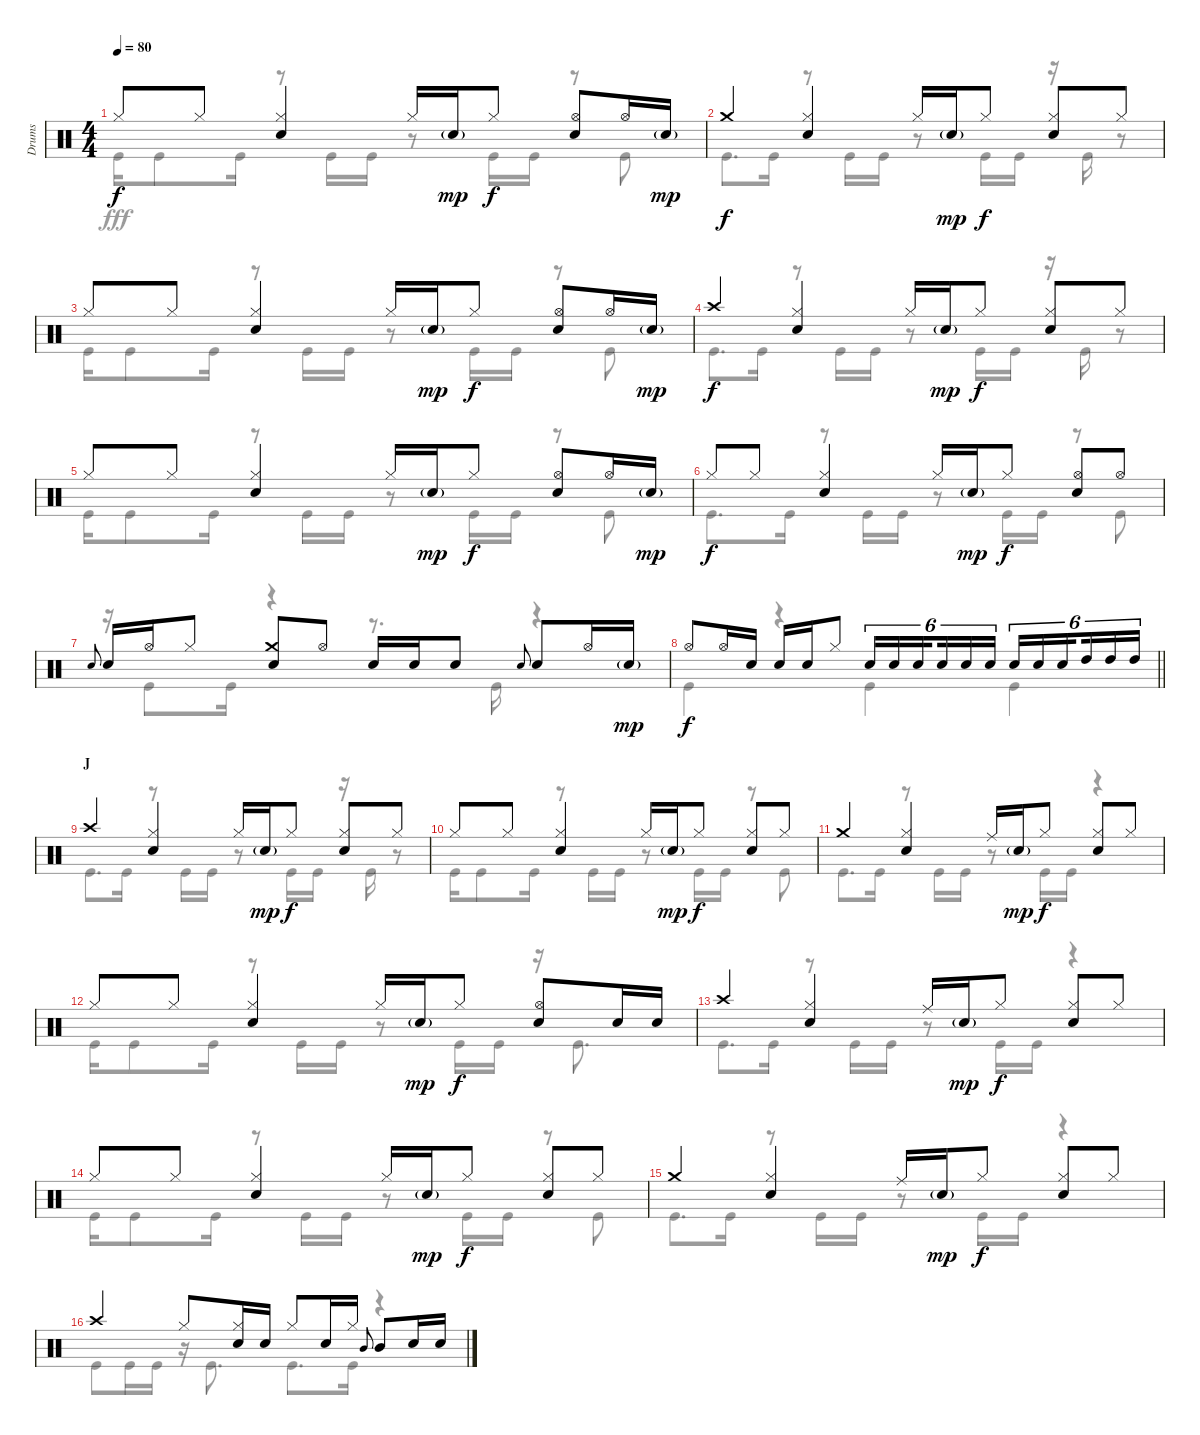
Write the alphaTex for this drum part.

\track ("Drums" "Drums") {instrument percussion}
\staff {score}
\articulation defaults
\voice
\ts (4 4)
\tempo 80
\clef neutral
\ks c "Hi-Hat (closed)".8{dy f} "Hi-Hat (closed)".8
("Hi-Hat (closed)" "Snare (hit) 2").4 "Hi-Hat (closed)".16 "Snare (hit) 2"{g}.16{dy mp} "Hi-Hat (closed)".8{dy f} ("Hi-Hat (open)" "Snare (hit) 2").8 "Hi-Hat (open)".16 "Snare (hit) 2"{g}.16{dy mp} |
"Crash medium (hit)".4{dy f} ("Hi-Hat (closed)" "Snare (hit) 2").4 "Hi-Hat (closed)".16 "Snare (hit) 2"{g}.16{dy mp} "Hi-Hat (closed)".8{dy f} ("Hi-Hat (closed)" "Snare (hit) 2").8 "Hi-Hat (closed)".8 |
"Hi-Hat (closed)".8 "Hi-Hat (closed)".8 ("Hi-Hat (closed)" "Snare (hit) 2").4 "Hi-Hat (closed)".16 "Snare (hit) 2"{g}.16{dy mp} "Hi-Hat (closed)".8{dy f} ("Hi-Hat (open)" "Snare (hit) 2").8 "Hi-Hat (open)".16 "Snare (hit) 2"{g}.16{dy mp} |
"Crash high (hit)".4{dy f} ("Hi-Hat (closed)" "Snare (hit) 2").4 "Hi-Hat (closed)".16 "Snare (hit) 2"{g}.16{dy mp} "Hi-Hat (closed)".8{dy f} ("Hi-Hat (closed)" "Snare (hit) 2").8 "Hi-Hat (closed)".8 |
"Hi-Hat (closed)".8 "Hi-Hat (closed)".8 ("Hi-Hat (closed)" "Snare (hit) 2").4 "Hi-Hat (closed)".16 "Snare (hit) 2"{g}.16{dy mp} "Hi-Hat (closed)".8{dy f} ("Hi-Hat (open)" "Snare (hit) 2").8 "Hi-Hat (open)".16 "Snare (hit) 2"{g}.16{dy mp} |
"Hi-Hat (closed)".8{dy f} "Hi-Hat (closed)".8 ("Hi-Hat (closed)" "Snare (hit) 2").4 "Hi-Hat (closed)".16 "Snare (hit) 2"{g}.16{dy mp} "Hi-Hat (closed)".8{dy f} ("Hi-Hat (open)" "Snare (hit) 2").8 "Hi-Hat (open)".8 |
"Snare (hit) 2".8{gr onbeat} "Snare (hit) 2".16 "Hi-Hat (open)".16 "Hi-Hat (closed)".8 ("Crash medium (hit)" "Snare (hit) 2").8 "Hi-Hat (open)".8 "Snare (hit) 2".16 "Snare (hit) 2".16 "Snare (hit) 2".8 "Snare (hit) 2".8{gr onbeat} "Snare (hit) 2".8 "Hi-Hat (open)".16 "Snare (hit) 2"{g}.16{dy mp} |
\barLineRight lightlight "Hi-Hat (open)".8{dy f} "Hi-Hat (open)".16 "Snare (hit) 2".16 "Snare (hit) 2".16 "Snare (hit) 2".16 "Hi-Hat (closed)".8 "Snare (hit) 2".16{tu (6 4)} "Snare (hit) 2".16{tu (6 4)} "Snare (hit) 2".16{tu (6 4) beam splitsecondary} "Snare (hit) 2".16{tu (6 4)} "Snare (hit) 2".16{tu (6 4)} "Snare (hit) 2".16{tu (6 4)} "Snare (hit) 2".16{tu (6 4)} "Snare (hit) 2".16{tu (6 4)} "Snare (hit) 2".16{tu (6 4) beam splitsecondary} "High Tom (hit)".16{tu (6 4)} "High Tom (hit)".16{tu (6 4)} "High Tom (hit)".16{tu (6 4)}
|
\section ("" "J")
"Crash high (hit)".4 ("Hi-Hat (closed)" "Snare (hit) 2").4 "Hi-Hat (closed)".16 "Snare (hit) 2"{g}.16{dy mp} "Hi-Hat (closed)".8{dy f} ("Hi-Hat (closed)" "Snare (hit) 2").8 "Hi-Hat (closed)".8 |
"Hi-Hat (closed)".8 "Hi-Hat (closed)".8 ("Hi-Hat (closed)" "Snare (hit) 2").4 "Hi-Hat (closed)".16 "Snare (hit) 2"{g}.16{dy mp} "Hi-Hat (closed)".8{dy f} ("Hi-Hat (closed)" "Snare (hit) 2").8 "Hi-Hat (closed)".8 |
"Crash medium (hit)".4 ("Hi-Hat (closed)" "Snare (hit) 2").4 "Ride (middle)".16 "Snare (hit) 2"{g}.16{dy mp} "Hi-Hat (closed)".8{dy f} ("Hi-Hat (closed)" "Snare (hit) 2").8 "Hi-Hat (closed)".8 |
"Hi-Hat (closed)".8 "Hi-Hat (closed)".8 ("Hi-Hat (closed)" "Snare (hit) 2").4 "Hi-Hat (closed)".16 "Snare (hit) 2"{g}.16{dy mp} "Hi-Hat (closed)".8{dy f} ("Hi-Hat (open)" "Snare (hit) 2").8 "Snare (hit) 2".16 "Snare (hit) 2".16 |
"Crash high (hit)".4 ("Hi-Hat (closed)" "Snare (hit) 2").4 "Ride (middle)".16 "Snare (hit) 2"{g}.16{dy mp} "Hi-Hat (closed)".8{dy f} ("Hi-Hat (closed)" "Snare (hit) 2").8 "Hi-Hat (closed)".8 |
"Hi-Hat (closed)".8 "Hi-Hat (closed)".8 ("Hi-Hat (closed)" "Snare (hit) 2").4 "Hi-Hat (closed)".16 "Snare (hit) 2"{g}.16{dy mp} "Hi-Hat (closed)".8{dy f} ("Hi-Hat (closed)" "Snare (hit) 2").8 "Hi-Hat (closed)".8 |
"Crash medium (hit)".4 ("Hi-Hat (closed)" "Snare (hit) 2").4 "Ride (middle)".16 "Snare (hit) 2"{g}.16{dy mp} "Hi-Hat (closed)".8{dy f} ("Hi-Hat (closed)" "Snare (hit) 2").8 "Hi-Hat (closed)".8 |
"Crash high (hit)".4 "Hi-Hat (closed)".8 ("Hi-Hat (closed)" "Snare (hit) 2").16 "Snare (hit) 2".16 "Hi-Hat (closed)".8 "Snare (hit) 2".16 "Hi-Hat (closed)".16 "Mid Tom (hit)".8{gr onbeat} "Mid Tom (hit)".8 "Snare (hit) 2".16 "Snare (hit) 2".16
\voice
\clef neutral
\ottava regular
\simile none
\ks c "Kick (hit)".16{dy fff} "Kick (hit)".8 "Kick (hit)".16
r.8 "Kick (hit)".16 "Kick (hit)".16 r.8 "Kick (hit)".16 "Kick (hit)".16 r.8 "Kick (hit)".8 |
"Kick (hit)".8{d} "Kick (hit)".16 r.8 "Kick (hit)".16 "Kick (hit)".16 r.8 "Kick (hit)".16 "Kick (hit)".16 r.16 "Kick (hit)".16 r.8 |
"Kick (hit)".16 "Kick (hit)".8 "Kick (hit)".16 r.8 "Kick (hit)".16 "Kick (hit)".16 r.8 "Kick (hit)".16 "Kick (hit)".16 r.8 "Kick (hit)".8 |
"Kick (hit)".8{d} "Kick (hit)".16 r.8 "Kick (hit)".16 "Kick (hit)".16 r.8 "Kick (hit)".16 "Kick (hit)".16 r.16 "Kick (hit)".16 r.8 |
"Kick (hit)".16 "Kick (hit)".8 "Kick (hit)".16 r.8 "Kick (hit)".16 "Kick (hit)".16 r.8 "Kick (hit)".16 "Kick (hit)".16 r.8 "Kick (hit)".8 |
"Kick (hit)".8{d} "Kick (hit)".16 r.8 "Kick (hit)".16 "Kick (hit)".16 r.8 "Kick (hit)".16 "Kick (hit)".16 r.8 "Kick (hit)".8 |
r.16 "Kick (hit)".8 "Kick (hit)".16 r.4 r.8{d} "Kick (hit)".16 r.4 |
\barLineRight lightlight "Kick (hit)".4
r.4 "Kick (hit)".4 "Kick (hit)".4 |
"Kick (hit)".8{d} "Kick (hit)".16 r.8 "Kick (hit)".16 "Kick (hit)".16 r.8 "Kick (hit)".16 "Kick (hit)".16 r.16 "Kick (hit)".16 r.8 |
"Kick (hit)".16 "Kick (hit)".8 "Kick (hit)".16 r.8 "Kick (hit)".16 "Kick (hit)".16 r.8 "Kick (hit)".16 "Kick (hit)".16 r.8 "Kick (hit)".8 |
"Kick (hit)".8{d} "Kick (hit)".16 r.8 "Kick (hit)".16 "Kick (hit)".16 r.8 "Kick (hit)".16 "Kick (hit)".16 r.4 |
"Kick (hit)".16 "Kick (hit)".8 "Kick (hit)".16 r.8 "Kick (hit)".16 "Kick (hit)".16 r.8 "Kick (hit)".16 "Kick (hit)".16 r.16 "Kick (hit)".8{d} |
"Kick (hit)".8{d} "Kick (hit)".16 r.8 "Kick (hit)".16 "Kick (hit)".16 r.8 "Kick (hit)".16 "Kick (hit)".16 r.4 |
"Kick (hit)".16 "Kick (hit)".8 "Kick (hit)".16 r.8 "Kick (hit)".16 "Kick (hit)".16 r.8 "Kick (hit)".16 "Kick (hit)".16 r.8 "Kick (hit)".8 |
"Kick (hit)".8{d} "Kick (hit)".16 r.8 "Kick (hit)".16 "Kick (hit)".16 r.8 "Kick (hit)".16 "Kick (hit)".16 r.4 |
"Kick (hit)".8 "Kick (hit)".16 "Kick (hit)".16 r.16 "Kick (hit)".8{d} "Kick (hit)".8{d} "Kick (hit)".16 r.4
